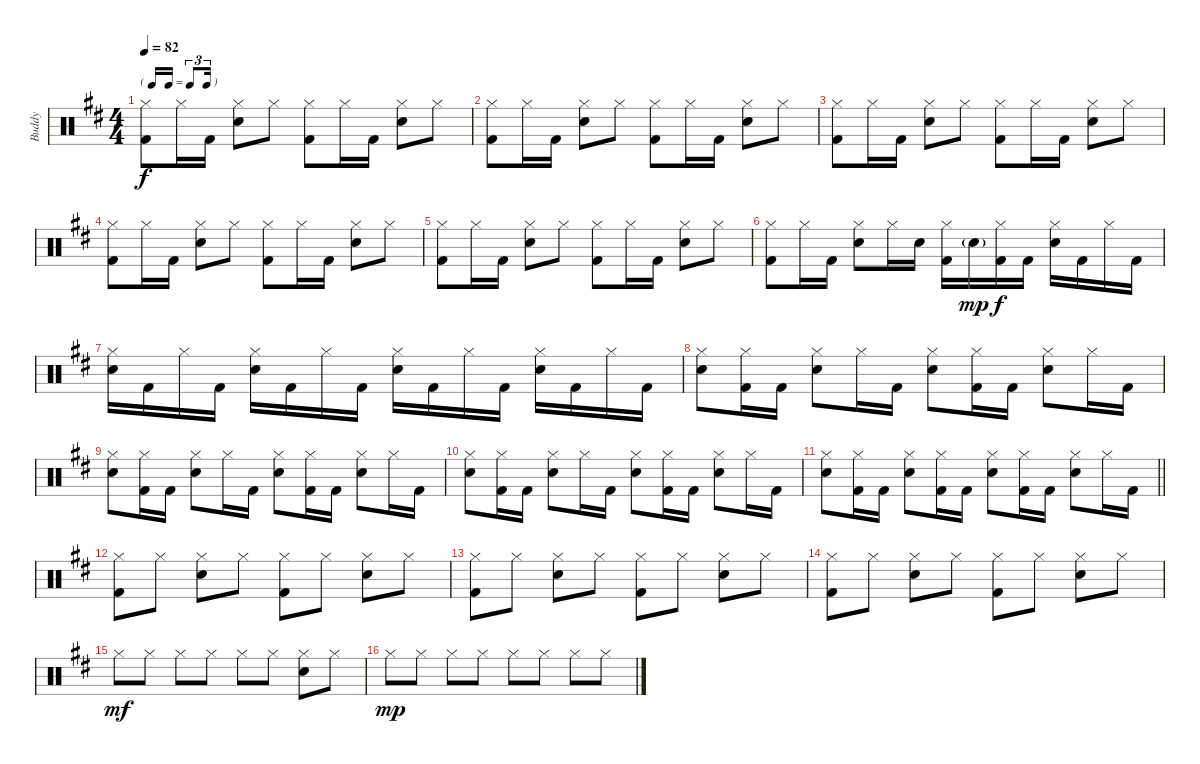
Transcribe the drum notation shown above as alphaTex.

\track ("Buddy" "Buddy") {instrument percussion}
\staff {score}
\articulation defaults
\ts (4 4)
\tf triplet16th
\tempo 82
\clef neutral
\ks d
("Hi-Hat (closed)" "Kick (hit) 2").8{dy f} "Hi-Hat (closed)".16 "Kick (hit) 2".16 ("Hi-Hat (closed)" "Snare (hit) 2").8 "Hi-Hat (closed)".8 ("Hi-Hat (closed)" "Kick (hit) 2").8 "Hi-Hat (closed)".16 "Kick (hit) 2".16 ("Hi-Hat (closed)" "Snare (hit) 2").8 "Hi-Hat (closed)".8 |
("Hi-Hat (closed)" "Kick (hit) 2").8 "Hi-Hat (closed)".16 "Kick (hit) 2".16 ("Hi-Hat (closed)" "Snare (hit) 2").8 "Hi-Hat (closed)".8 ("Hi-Hat (closed)" "Kick (hit) 2").8 "Hi-Hat (closed)".16 "Kick (hit) 2".16 ("Hi-Hat (closed)" "Snare (hit) 2").8 "Hi-Hat (closed)".8 |
("Hi-Hat (closed)" "Kick (hit) 2").8 "Hi-Hat (closed)".16 "Kick (hit) 2".16 ("Hi-Hat (closed)" "Snare (hit) 2").8 "Hi-Hat (closed)".8 ("Hi-Hat (closed)" "Kick (hit) 2").8 "Hi-Hat (closed)".16 "Kick (hit) 2".16 ("Hi-Hat (closed)" "Snare (hit) 2").8 "Hi-Hat (closed)".8 |
("Hi-Hat (closed)" "Kick (hit) 2").8 "Hi-Hat (closed)".16 "Kick (hit) 2".16 ("Hi-Hat (closed)" "Snare (hit) 2").8 "Hi-Hat (closed)".8 ("Hi-Hat (closed)" "Kick (hit) 2").8 "Hi-Hat (closed)".16 "Kick (hit) 2".16 ("Hi-Hat (closed)" "Snare (hit) 2").8 "Hi-Hat (closed)".8 |
("Hi-Hat (closed)" "Kick (hit) 2").8 "Hi-Hat (closed)".16 "Kick (hit) 2".16 ("Hi-Hat (closed)" "Snare (hit) 2").8 "Hi-Hat (closed)".8 ("Hi-Hat (closed)" "Kick (hit) 2").8 "Hi-Hat (closed)".16 "Kick (hit) 2".16 ("Hi-Hat (closed)" "Snare (hit) 2").8 "Hi-Hat (closed)".8 |
("Hi-Hat (closed)" "Kick (hit) 2").8 "Hi-Hat (closed)".16 "Kick (hit) 2".16 ("Hi-Hat (closed)" "Snare (hit) 2").8 "Hi-Hat (closed)".16 "Snare (hit) 2".16 ("Hi-Hat (closed)" "Kick (hit) 2").16 "Snare (hit) 2"{g}.16{dy mp} ("Hi-Hat (closed)" "Kick (hit) 2").16{dy f} "Kick (hit) 2".16 ("Hi-Hat (closed)" "Snare (hit) 2").16 "Kick (hit) 2".16 "Hi-Hat (closed)".16 "Kick (hit) 2".16 |
("Hi-Hat (closed)" "Snare (hit) 2").16 "Kick (hit) 2".16 "Hi-Hat (closed)".16 "Kick (hit) 2".16 ("Hi-Hat (closed)" "Snare (hit) 2").16 "Kick (hit) 2".16 "Hi-Hat (closed)".16 "Kick (hit) 2".16 ("Hi-Hat (closed)" "Snare (hit) 2").16 "Kick (hit) 2".16 "Hi-Hat (closed)".16 "Kick (hit) 2".16 ("Hi-Hat (closed)" "Snare (hit) 2").16 "Kick (hit) 2".16 "Hi-Hat (closed)".16 "Kick (hit) 2".16 |
("Hi-Hat (closed)" "Snare (hit) 2").8 ("Hi-Hat (closed)" "Kick (hit) 2").16 "Kick (hit) 2".16 ("Hi-Hat (closed)" "Snare (hit) 2").8 "Hi-Hat (closed)".16 "Kick (hit) 2".16 ("Hi-Hat (closed)" "Snare (hit) 2").8 ("Hi-Hat (closed)" "Kick (hit) 2").16 "Kick (hit) 2".16 ("Hi-Hat (closed)" "Snare (hit) 2").8 "Hi-Hat (closed)".16 "Kick (hit) 2".16 |
("Hi-Hat (closed)" "Snare (hit) 2").8 ("Hi-Hat (closed)" "Kick (hit) 2").16 "Kick (hit) 2".16 ("Hi-Hat (closed)" "Snare (hit) 2").8 "Hi-Hat (closed)".16 "Kick (hit) 2".16 ("Hi-Hat (closed)" "Snare (hit) 2").8 ("Hi-Hat (closed)" "Kick (hit) 2").16 "Kick (hit) 2".16 ("Hi-Hat (closed)" "Snare (hit) 2").8 "Hi-Hat (closed)".16 "Kick (hit) 2".16 |
("Hi-Hat (closed)" "Snare (hit) 2").8 ("Hi-Hat (closed)" "Kick (hit) 2").16 "Kick (hit) 2".16 ("Hi-Hat (closed)" "Snare (hit) 2").8 "Hi-Hat (closed)".16 "Kick (hit) 2".16 ("Hi-Hat (closed)" "Snare (hit) 2").8 ("Hi-Hat (closed)" "Kick (hit) 2").16 "Kick (hit) 2".16 ("Hi-Hat (closed)" "Snare (hit) 2").8 "Hi-Hat (closed)".16 "Kick (hit) 2".16 |
\barLineRight lightlight
("Hi-Hat (closed)" "Snare (hit) 2").8 ("Hi-Hat (closed)" "Kick (hit) 2").16 "Kick (hit) 2".16 ("Hi-Hat (closed)" "Snare (hit) 2").8 ("Hi-Hat (closed)" "Kick (hit) 2").16 "Kick (hit) 2".16 ("Hi-Hat (closed)" "Snare (hit) 2").8 ("Hi-Hat (closed)" "Kick (hit) 2").16 "Kick (hit) 2".16 ("Hi-Hat (closed)" "Snare (hit) 2").8 "Hi-Hat (closed)".16 "Kick (hit) 2".16 |
("Hi-Hat (closed)" "Kick (hit) 2").8 "Hi-Hat (closed)".8 ("Hi-Hat (closed)" "Snare (hit) 2").8 "Hi-Hat (closed)".8 ("Hi-Hat (closed)" "Kick (hit) 2").8 "Hi-Hat (closed)".8 ("Hi-Hat (closed)" "Snare (hit) 2").8 "Hi-Hat (closed)".8 |
("Hi-Hat (closed)" "Kick (hit) 2").8 "Hi-Hat (closed)".8 ("Hi-Hat (closed)" "Snare (hit) 2").8 "Hi-Hat (closed)".8 ("Hi-Hat (closed)" "Kick (hit) 2").8 "Hi-Hat (closed)".8 ("Hi-Hat (closed)" "Snare (hit) 2").8 "Hi-Hat (closed)".8 |
("Hi-Hat (closed)" "Kick (hit) 2").8 "Hi-Hat (closed)".8 ("Hi-Hat (closed)" "Snare (hit) 2").8 "Hi-Hat (closed)".8 ("Hi-Hat (closed)" "Kick (hit) 2").8 "Hi-Hat (closed)".8 ("Hi-Hat (closed)" "Snare (hit) 2").8 "Hi-Hat (closed)".8 |
"Hi-Hat (closed)".8{dy mf} "Hi-Hat (closed)".8 "Hi-Hat (closed)".8 "Hi-Hat (closed)".8 "Hi-Hat (closed)".8 "Hi-Hat (closed)".8 ("Hi-Hat (closed)" "Snare (hit) 2").8 "Hi-Hat (closed)".8 |
"Hi-Hat (closed)".8{dy mp} "Hi-Hat (closed)".8 "Hi-Hat (closed)".8 "Hi-Hat (closed)".8 "Hi-Hat (closed)".8 "Hi-Hat (closed)".8 "Hi-Hat (closed)".8 "Hi-Hat (closed)".8
